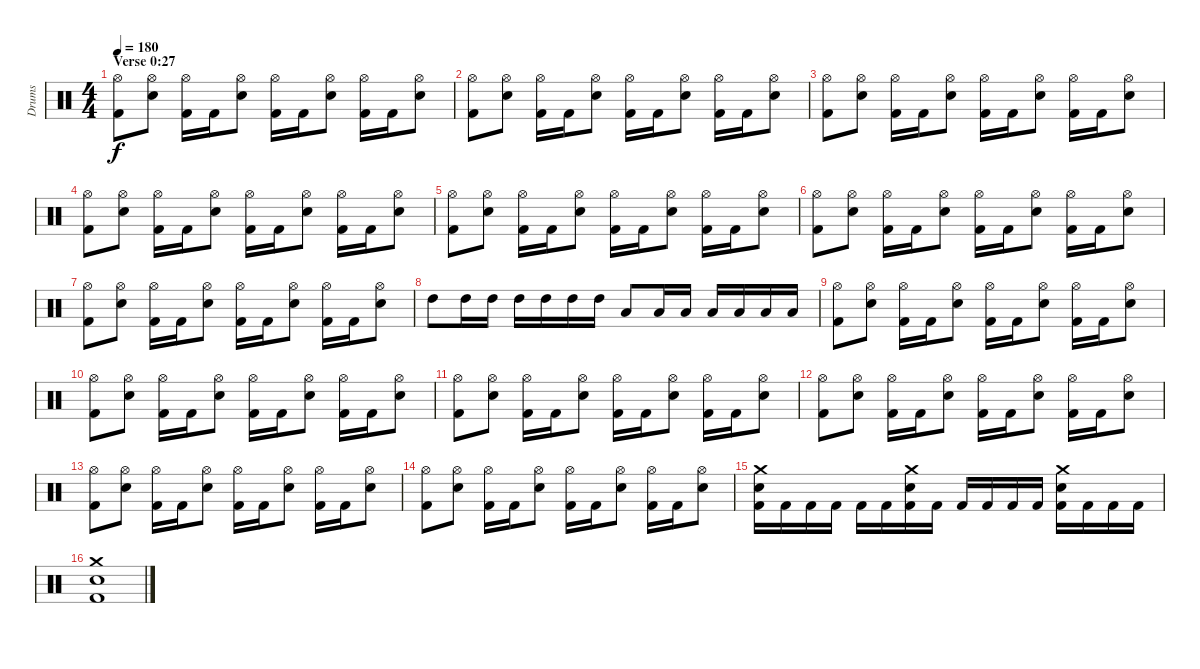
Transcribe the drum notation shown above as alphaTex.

\track ("Drums" "Drums") {instrument percussion}
\staff {score}
\articulation defaults
\ts (4 4)
\section ("" "Verse 0:27")
\tempo 180
\clef neutral
\ks c
("Hi-Hat (open)" "Kick (hit) 2").8{dy f} ("Hi-Hat (open)" "Electric Snare (hit)").8 ("Hi-Hat (open)" "Kick (hit) 2").16 "Kick (hit) 2".16 ("Hi-Hat (open)" "Electric Snare (hit)").8 ("Hi-Hat (open)" "Kick (hit) 2").16 "Kick (hit) 2".16 ("Hi-Hat (open)" "Electric Snare (hit)").8 ("Hi-Hat (open)" "Kick (hit) 2").16 "Kick (hit) 2".16 ("Hi-Hat (open)" "Electric Snare (hit)").8 |
("Hi-Hat (open)" "Kick (hit) 2").8 ("Hi-Hat (open)" "Electric Snare (hit)").8 ("Hi-Hat (open)" "Kick (hit) 2").16 "Kick (hit) 2".16 ("Hi-Hat (open)" "Electric Snare (hit)").8 ("Hi-Hat (open)" "Kick (hit) 2").16 "Kick (hit) 2".16 ("Hi-Hat (open)" "Electric Snare (hit)").8 ("Hi-Hat (open)" "Kick (hit) 2").16 "Kick (hit) 2".16 ("Hi-Hat (open)" "Electric Snare (hit)").8 |
("Hi-Hat (open)" "Kick (hit) 2").8 ("Hi-Hat (open)" "Electric Snare (hit)").8 ("Hi-Hat (open)" "Kick (hit) 2").16 "Kick (hit) 2".16 ("Hi-Hat (open)" "Electric Snare (hit)").8 ("Hi-Hat (open)" "Kick (hit) 2").16 "Kick (hit) 2".16 ("Hi-Hat (open)" "Electric Snare (hit)").8 ("Hi-Hat (open)" "Kick (hit) 2").16 "Kick (hit) 2".16 ("Hi-Hat (open)" "Electric Snare (hit)").8 |
("Hi-Hat (open)" "Kick (hit) 2").8 ("Hi-Hat (open)" "Electric Snare (hit)").8 ("Hi-Hat (open)" "Kick (hit) 2").16 "Kick (hit) 2".16 ("Hi-Hat (open)" "Electric Snare (hit)").8 ("Hi-Hat (open)" "Kick (hit) 2").16 "Kick (hit) 2".16 ("Hi-Hat (open)" "Electric Snare (hit)").8 ("Hi-Hat (open)" "Kick (hit) 2").16 "Kick (hit) 2".16 ("Hi-Hat (open)" "Electric Snare (hit)").8 |
("Hi-Hat (open)" "Kick (hit) 2").8 ("Hi-Hat (open)" "Electric Snare (hit)").8 ("Hi-Hat (open)" "Kick (hit) 2").16 "Kick (hit) 2".16 ("Hi-Hat (open)" "Electric Snare (hit)").8 ("Hi-Hat (open)" "Kick (hit) 2").16 "Kick (hit) 2".16 ("Hi-Hat (open)" "Electric Snare (hit)").8 ("Hi-Hat (open)" "Kick (hit) 2").16 "Kick (hit) 2".16 ("Hi-Hat (open)" "Electric Snare (hit)").8 |
("Hi-Hat (open)" "Kick (hit) 2").8 ("Hi-Hat (open)" "Electric Snare (hit)").8 ("Hi-Hat (open)" "Kick (hit) 2").16 "Kick (hit) 2".16 ("Hi-Hat (open)" "Electric Snare (hit)").8 ("Hi-Hat (open)" "Kick (hit) 2").16 "Kick (hit) 2".16 ("Hi-Hat (open)" "Electric Snare (hit)").8 ("Hi-Hat (open)" "Kick (hit) 2").16 "Kick (hit) 2".16 ("Hi-Hat (open)" "Electric Snare (hit)").8 |
("Hi-Hat (open)" "Kick (hit) 2").8 ("Hi-Hat (open)" "Electric Snare (hit)").8 ("Hi-Hat (open)" "Kick (hit) 2").16 "Kick (hit) 2".16 ("Hi-Hat (open)" "Electric Snare (hit)").8 ("Hi-Hat (open)" "Kick (hit) 2").16 "Kick (hit) 2".16 ("Hi-Hat (open)" "Electric Snare (hit)").8 ("Hi-Hat (open)" "Kick (hit) 2").16 "Kick (hit) 2".16 ("Hi-Hat (open)" "Electric Snare (hit)").8 |
"High Tom (hit)".8 "High Tom (hit)".16 "High Tom (hit)".16 "High Tom (hit)".16 "High Tom (hit)".16 "High Tom (hit)".16 "High Tom (hit)".16 "Low Tom (hit)".8 "Low Tom (hit)".16 "Low Tom (hit)".16 "Low Tom (hit)".16 "Low Tom (hit)".16 "Low Tom (hit)".16 "Low Tom (hit)".16 |
("Hi-Hat (open)" "Kick (hit) 2").8 ("Hi-Hat (open)" "Electric Snare (hit)").8 ("Hi-Hat (open)" "Kick (hit) 2").16 "Kick (hit) 2".16 ("Hi-Hat (open)" "Electric Snare (hit)").8 ("Hi-Hat (open)" "Kick (hit) 2").16 "Kick (hit) 2".16 ("Hi-Hat (open)" "Electric Snare (hit)").8 ("Hi-Hat (open)" "Kick (hit) 2").16 "Kick (hit) 2".16 ("Hi-Hat (open)" "Electric Snare (hit)").8 |
("Hi-Hat (open)" "Kick (hit) 2").8 ("Hi-Hat (open)" "Electric Snare (hit)").8 ("Hi-Hat (open)" "Kick (hit) 2").16 "Kick (hit) 2".16 ("Hi-Hat (open)" "Electric Snare (hit)").8 ("Hi-Hat (open)" "Kick (hit) 2").16 "Kick (hit) 2".16 ("Hi-Hat (open)" "Electric Snare (hit)").8 ("Hi-Hat (open)" "Kick (hit) 2").16 "Kick (hit) 2".16 ("Hi-Hat (open)" "Electric Snare (hit)").8 |
("Hi-Hat (open)" "Kick (hit) 2").8 ("Hi-Hat (open)" "Electric Snare (hit)").8 ("Hi-Hat (open)" "Kick (hit) 2").16 "Kick (hit) 2".16 ("Hi-Hat (open)" "Electric Snare (hit)").8 ("Hi-Hat (open)" "Kick (hit) 2").16 "Kick (hit) 2".16 ("Hi-Hat (open)" "Electric Snare (hit)").8 ("Hi-Hat (open)" "Kick (hit) 2").16 "Kick (hit) 2".16 ("Hi-Hat (open)" "Electric Snare (hit)").8 |
("Hi-Hat (open)" "Kick (hit) 2").8 ("Hi-Hat (open)" "Electric Snare (hit)").8 ("Hi-Hat (open)" "Kick (hit) 2").16 "Kick (hit) 2".16 ("Hi-Hat (open)" "Electric Snare (hit)").8 ("Hi-Hat (open)" "Kick (hit) 2").16 "Kick (hit) 2".16 ("Hi-Hat (open)" "Electric Snare (hit)").8 ("Hi-Hat (open)" "Kick (hit) 2").16 "Kick (hit) 2".16 ("Hi-Hat (open)" "Electric Snare (hit)").8 |
("Hi-Hat (open)" "Kick (hit) 2").8 ("Hi-Hat (open)" "Electric Snare (hit)").8 ("Hi-Hat (open)" "Kick (hit) 2").16 "Kick (hit) 2".16 ("Hi-Hat (open)" "Electric Snare (hit)").8 ("Hi-Hat (open)" "Kick (hit) 2").16 "Kick (hit) 2".16 ("Hi-Hat (open)" "Electric Snare (hit)").8 ("Hi-Hat (open)" "Kick (hit) 2").16 "Kick (hit) 2".16 ("Hi-Hat (open)" "Electric Snare (hit)").8 |
("Hi-Hat (open)" "Kick (hit) 2").8 ("Hi-Hat (open)" "Electric Snare (hit)").8 ("Hi-Hat (open)" "Kick (hit) 2").16 "Kick (hit) 2".16 ("Hi-Hat (open)" "Electric Snare (hit)").8 ("Hi-Hat (open)" "Kick (hit) 2").16 "Kick (hit) 2".16 ("Hi-Hat (open)" "Electric Snare (hit)").8 ("Hi-Hat (open)" "Kick (hit) 2").16 "Kick (hit) 2".16 ("Hi-Hat (open)" "Electric Snare (hit)").8 |
("Crash medium (hit)" "Electric Snare (hit)" "Kick (hit) 2").16 "Kick (hit) 2".16 "Kick (hit) 2".16 "Kick (hit) 2".16 "Kick (hit) 2".16 "Kick (hit) 2".16 ("Crash medium (hit)" "Electric Snare (hit)" "Kick (hit) 2").16 "Kick (hit) 2".16 "Kick (hit) 2".16 "Kick (hit) 2".16 "Kick (hit) 2".16 "Kick (hit) 2".16 ("Crash medium (hit)" "Electric Snare (hit)" "Kick (hit) 2").16 "Kick (hit) 2".16 "Kick (hit) 2".16 "Kick (hit) 2".16 |
("Crash medium (hit)" "Electric Snare (hit)" "Kick (hit) 2").1
